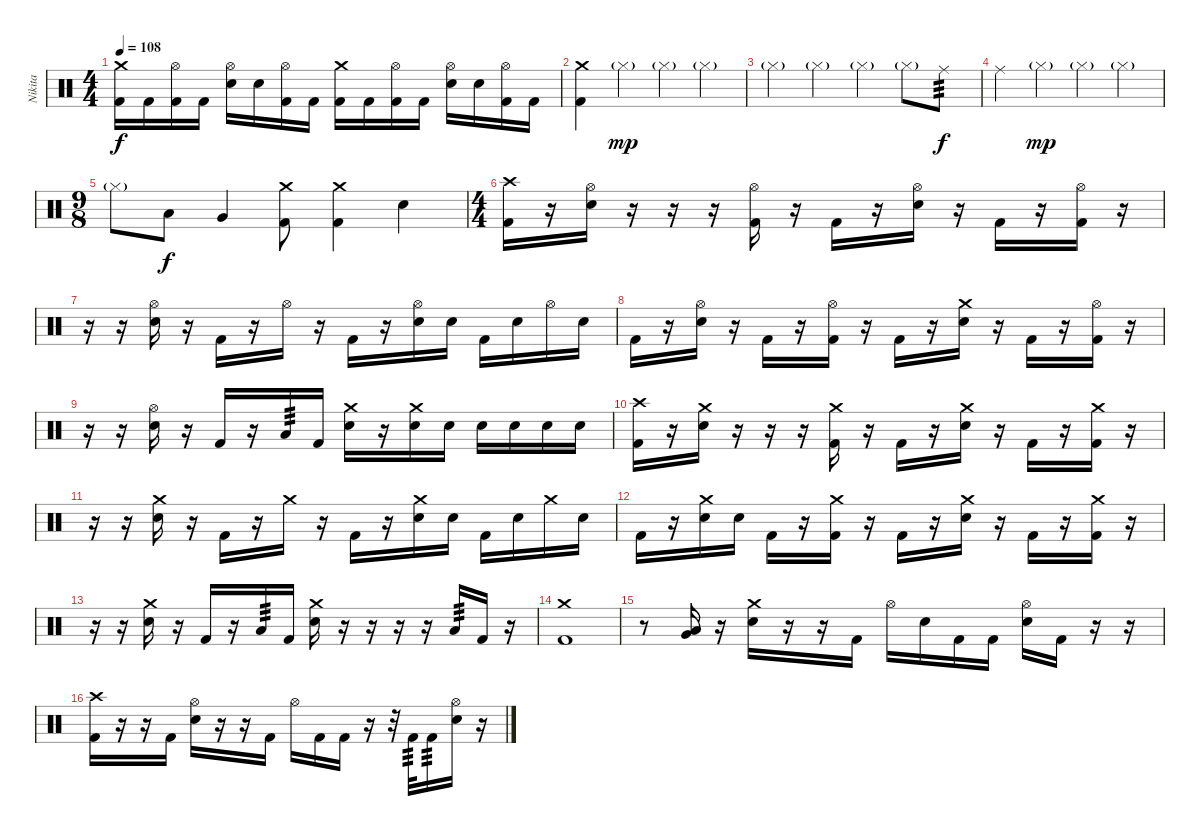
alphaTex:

\track ("Nikita" "Nikita") {instrument percussion}
\staff {score}
\articulation defaults
\ts (4 4)
\tempo 108
\clef neutral
\ks c
("Crash medium (hit)" "Kick (hit) 2").16{dy f} "Kick (hit) 2".16 ("Hi-Hat (open)" "Kick (hit) 2").16 "Kick (hit) 2".16 ("Hi-Hat (open)" "Electric Snare (hit)").16 "Electric Snare (hit)".16 ("Hi-Hat (open)" "Kick (hit) 2").16 "Kick (hit) 2".16 ("Crash medium (hit)" "Kick (hit) 2").16 "Kick (hit) 2".16 ("Hi-Hat (open)" "Kick (hit) 2").16 "Kick (hit) 2".16 ("Hi-Hat (open)" "Electric Snare (hit)").16 "Electric Snare (hit)".16 ("Hi-Hat (open)" "Kick (hit) 2").16 "Kick (hit) 2".16 |
("Crash medium (hit)" "Kick (hit) 2").4 "Hi-Hat (closed)"{g}.4{dy mp} "Hi-Hat (closed)"{g}.4 "Hi-Hat (closed)"{g}.4 |
"Hi-Hat (closed)"{g}.4 "Hi-Hat (closed)"{g}.4 "Hi-Hat (closed)"{g}.4 "Hi-Hat (closed)"{g}.8 "Ride (middle)".8{tp 3 dy f} |
"Ride (middle)".4 "Hi-Hat (closed)"{g}.4{dy mp} "Hi-Hat (closed)"{g}.4 "Hi-Hat (closed)"{g}.4 |
\ts (9 8)
"Hi-Hat (closed)"{g}.8 "Low Tom (hit)".8{dy f} "Very Low Tom (hit)".4 ("Crash medium (hit)" "Kick (hit) 2").8 ("Crash medium (hit)" "Kick (hit) 2").4 "Electric Snare (hit)".4 |
\ts (4 4)
("Crash high (hit)" "Kick (hit) 2").16 r.16 ("Hi-Hat (open)" "Electric Snare (hit)").16 r.16 r.16 r.16 ("Hi-Hat (open)" "Kick (hit) 2").16 r.16 "Kick (hit) 2".16 r.16 ("Hi-Hat (open)" "Electric Snare (hit)").16 r.16 "Kick (hit) 2".16 r.16 ("Hi-Hat (open)" "Kick (hit) 2").16 r.16 |
r.16 r.16 ("Hi-Hat (open)" "Electric Snare (hit)").16 r.16 "Kick (hit) 2".16 r.16 "Hi-Hat (open)".16 r.16 "Kick (hit) 2".16 r.16 ("Hi-Hat (open)" "Electric Snare (hit)").16 "Electric Snare (hit)".16 "Kick (hit) 2".16 "Electric Snare (hit)".16 "Hi-Hat (open)".16 "Electric Snare (hit)".16 |
"Kick (hit) 2".16 r.16 ("Hi-Hat (open)" "Electric Snare (hit)").16 r.16 "Kick (hit) 2".16 r.16 ("Hi-Hat (open)" "Kick (hit) 2").16 r.16 "Kick (hit) 2".16 r.16 ("Crash medium (hit)" "Electric Snare (hit)").16 r.16 "Kick (hit) 2".16 r.16 ("Hi-Hat (open)" "Kick (hit) 2").16 r.16 |
r.16 r.16 ("Hi-Hat (open)" "Electric Snare (hit)").16 r.16 "Kick (hit) 2".16 r.16 "Low Tom (hit)".16{tp 3} "Kick (hit) 2".16 ("Crash medium (hit)" "Electric Snare (hit)").16 r.16 ("Crash medium (hit)" "Electric Snare (hit)").16 "Electric Snare (hit)".16 "Electric Snare (hit)".16 "Electric Snare (hit)".16 "Electric Snare (hit)".16 "Electric Snare (hit)".16 |
("Crash high (hit)" "Kick (hit) 2").16 r.16 ("Crash medium (hit)" "Electric Snare (hit)").16 r.16 r.16 r.16 ("Crash medium (hit)" "Kick (hit) 2").16 r.16 "Kick (hit) 2".16 r.16 ("Crash medium (hit)" "Electric Snare (hit)").16 r.16 "Kick (hit) 2".16 r.16 ("Crash medium (hit)" "Kick (hit) 2").16 r.16 |
r.16 r.16 ("Crash medium (hit)" "Electric Snare (hit)").16 r.16 "Kick (hit) 2".16 r.16 "Crash medium (hit)".16 r.16 "Kick (hit) 2".16 r.16 ("Crash medium (hit)" "Electric Snare (hit)").16 "Electric Snare (hit)".16 "Kick (hit) 2".16 "Electric Snare (hit)".16 "Crash medium (hit)".16 "Electric Snare (hit)".16 |
"Kick (hit) 2".16 r.16 ("Crash medium (hit)" "Electric Snare (hit)").16 "Electric Snare (hit)".16 "Kick (hit) 2".16 r.16 ("Crash medium (hit)" "Kick (hit) 2").16 r.16 "Kick (hit) 2".16 r.16 ("Crash medium (hit)" "Electric Snare (hit)").16 r.16 "Kick (hit) 2".16 r.16 ("Crash medium (hit)" "Kick (hit) 2").16 r.16 |
r.16 r.16 ("Crash medium (hit)" "Electric Snare (hit)").16 r.16 "Kick (hit) 2".16 r.16 "Low Tom (hit)".16{tp 3} "Kick (hit) 2".16 ("Crash medium (hit)" "Electric Snare (hit)").16 r.16 r.16 r.16 r.16 "Low Tom (hit)".16{tp 3} "Kick (hit) 2".16 r.16 |
("Crash medium (hit)" "Kick (hit) 2").1 |
r.8 ("Very Low Tom (hit)" "Low Tom (hit)").16 r.16 ("Crash medium (hit)" "Electric Snare (hit)").16 r.16 r.16 "Kick (hit) 2".16 "Hi-Hat (open)".16 "Electric Snare (hit)".16 "Kick (hit) 2".16 "Kick (hit) 2".16 ("Hi-Hat (open)" "Electric Snare (hit)").16 "Kick (hit) 2".16 r.16 r.16 |
("Crash high (hit)" "Kick (hit) 2").16 r.16 r.16 "Kick (hit) 2".16 ("Hi-Hat (open)" "Electric Snare (hit)").16 r.16 r.16 "Kick (hit) 2".16 "Hi-Hat (open)".16 "Kick (hit) 2".16 "Kick (hit) 2".16 r.16 r.32 "Kick (hit) 2".32{tp 3} "Kick (hit) 2".16{tp 3} ("Hi-Hat (open)" "Electric Snare (hit)").16 r.16
